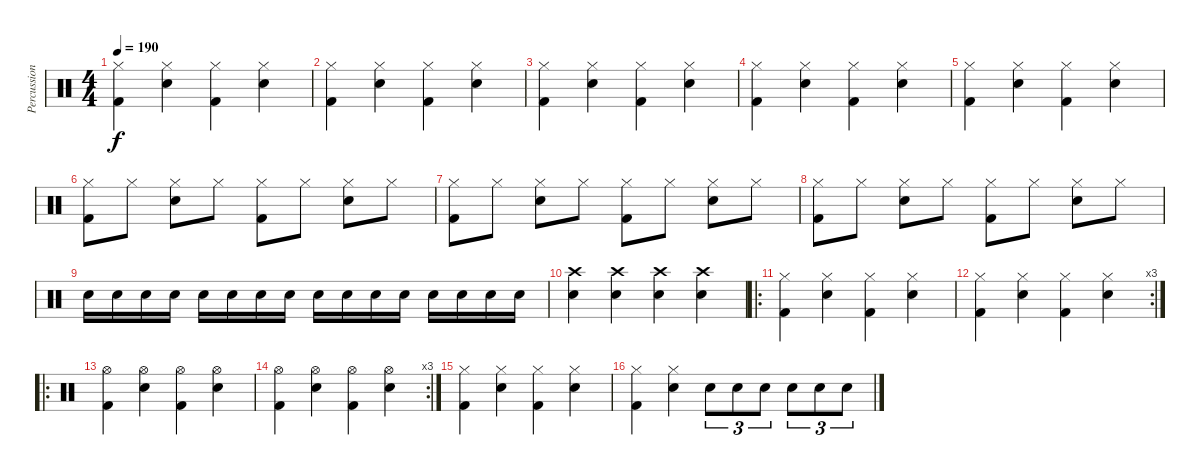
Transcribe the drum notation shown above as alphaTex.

\track ("Percussion" "Percussion") {instrument percussion}
\staff {score}
\articulation defaults
\ts (4 4)
\tempo 190
\clef neutral
\ks c
("Hi-Hat (closed)" "Kick (hit) 2").4{dy f} ("Hi-Hat (closed)" "Snare (hit) 2").4 ("Hi-Hat (closed)" "Kick (hit) 2").4 ("Hi-Hat (closed)" "Snare (hit) 2").4 |
("Hi-Hat (closed)" "Kick (hit) 2").4 ("Hi-Hat (closed)" "Snare (hit) 2").4 ("Hi-Hat (closed)" "Kick (hit) 2").4 ("Hi-Hat (closed)" "Snare (hit) 2").4 |
("Hi-Hat (closed)" "Kick (hit) 2").4 ("Hi-Hat (closed)" "Snare (hit) 2").4 ("Hi-Hat (closed)" "Kick (hit) 2").4 ("Hi-Hat (closed)" "Snare (hit) 2").4 |
("Hi-Hat (closed)" "Kick (hit) 2").4 ("Hi-Hat (closed)" "Snare (hit) 2").4 ("Hi-Hat (closed)" "Kick (hit) 2").4 ("Hi-Hat (closed)" "Snare (hit) 2").4 |
("Hi-Hat (closed)" "Kick (hit) 2").4 ("Hi-Hat (closed)" "Snare (hit) 2").4 ("Hi-Hat (closed)" "Kick (hit) 2").4 ("Hi-Hat (closed)" "Snare (hit) 2").4 |
("Hi-Hat (closed)" "Kick (hit) 2").8 "Hi-Hat (closed)".8 ("Hi-Hat (closed)" "Snare (hit) 2").8 "Hi-Hat (closed)".8 ("Hi-Hat (closed)" "Kick (hit) 2").8 "Hi-Hat (closed)".8 ("Hi-Hat (closed)" "Snare (hit) 2").8 "Hi-Hat (closed)".8 |
("Hi-Hat (closed)" "Kick (hit) 2").8 "Hi-Hat (closed)".8 ("Hi-Hat (closed)" "Snare (hit) 2").8 "Hi-Hat (closed)".8 ("Hi-Hat (closed)" "Kick (hit) 2").8 "Hi-Hat (closed)".8 ("Hi-Hat (closed)" "Snare (hit) 2").8 "Hi-Hat (closed)".8 |
("Hi-Hat (closed)" "Kick (hit) 2").8 "Hi-Hat (closed)".8 ("Hi-Hat (closed)" "Snare (hit) 2").8 "Hi-Hat (closed)".8 ("Hi-Hat (closed)" "Kick (hit) 2").8 "Hi-Hat (closed)".8 ("Hi-Hat (closed)" "Snare (hit) 2").8 "Hi-Hat (closed)".8 |
"Snare (hit) 2".16 "Snare (hit) 2".16 "Snare (hit) 2".16 "Snare (hit) 2".16 "Snare (hit) 2".16 "Snare (hit) 2".16 "Snare (hit) 2".16 "Snare (hit) 2".16 "Snare (hit) 2".16 "Snare (hit) 2".16 "Snare (hit) 2".16 "Snare (hit) 2".16 "Snare (hit) 2".16 "Snare (hit) 2".16 "Snare (hit) 2".16 "Snare (hit) 2".16 |
("Crash high (hit)" "Snare (hit) 2").4 ("Crash high (hit)" "Snare (hit) 2").4 ("Crash high (hit)" "Snare (hit) 2").4 ("Crash high (hit)" "Snare (hit) 2").4 |
\ro
("Hi-Hat (closed)" "Kick (hit) 2").4 ("Hi-Hat (closed)" "Snare (hit) 2").4 ("Hi-Hat (closed)" "Kick (hit) 2").4 ("Hi-Hat (closed)" "Snare (hit) 2").4 |
\rc 3
("Hi-Hat (closed)" "Kick (hit) 2").4 ("Hi-Hat (closed)" "Snare (hit) 2").4 ("Hi-Hat (closed)" "Kick (hit) 2").4 ("Hi-Hat (closed)" "Snare (hit) 2").4 |
\ro
("Hi-Hat (open)" "Kick (hit) 2").4 ("Hi-Hat (open)" "Snare (hit) 2").4 ("Hi-Hat (open)" "Kick (hit) 2").4 ("Hi-Hat (open)" "Snare (hit) 2").4 |
\rc 3
("Hi-Hat (open)" "Kick (hit) 2").4 ("Hi-Hat (open)" "Snare (hit) 2").4 ("Hi-Hat (open)" "Kick (hit) 2").4 ("Hi-Hat (open)" "Snare (hit) 2").4 |
("Hi-Hat (closed)" "Kick (hit) 2").4 ("Hi-Hat (closed)" "Snare (hit) 2").4 ("Hi-Hat (closed)" "Kick (hit) 2").4 ("Hi-Hat (closed)" "Snare (hit) 2").4 |
("Hi-Hat (closed)" "Kick (hit) 2").4 ("Hi-Hat (closed)" "Snare (hit) 2").4 "Snare (hit) 2".8{tu (3 2)} "Snare (hit) 2".8{tu (3 2)} "Snare (hit) 2".8{tu (3 2)} "Snare (hit) 2".8{tu (3 2)} "Snare (hit) 2".8{tu (3 2)} "Snare (hit) 2".8{tu (3 2)}
